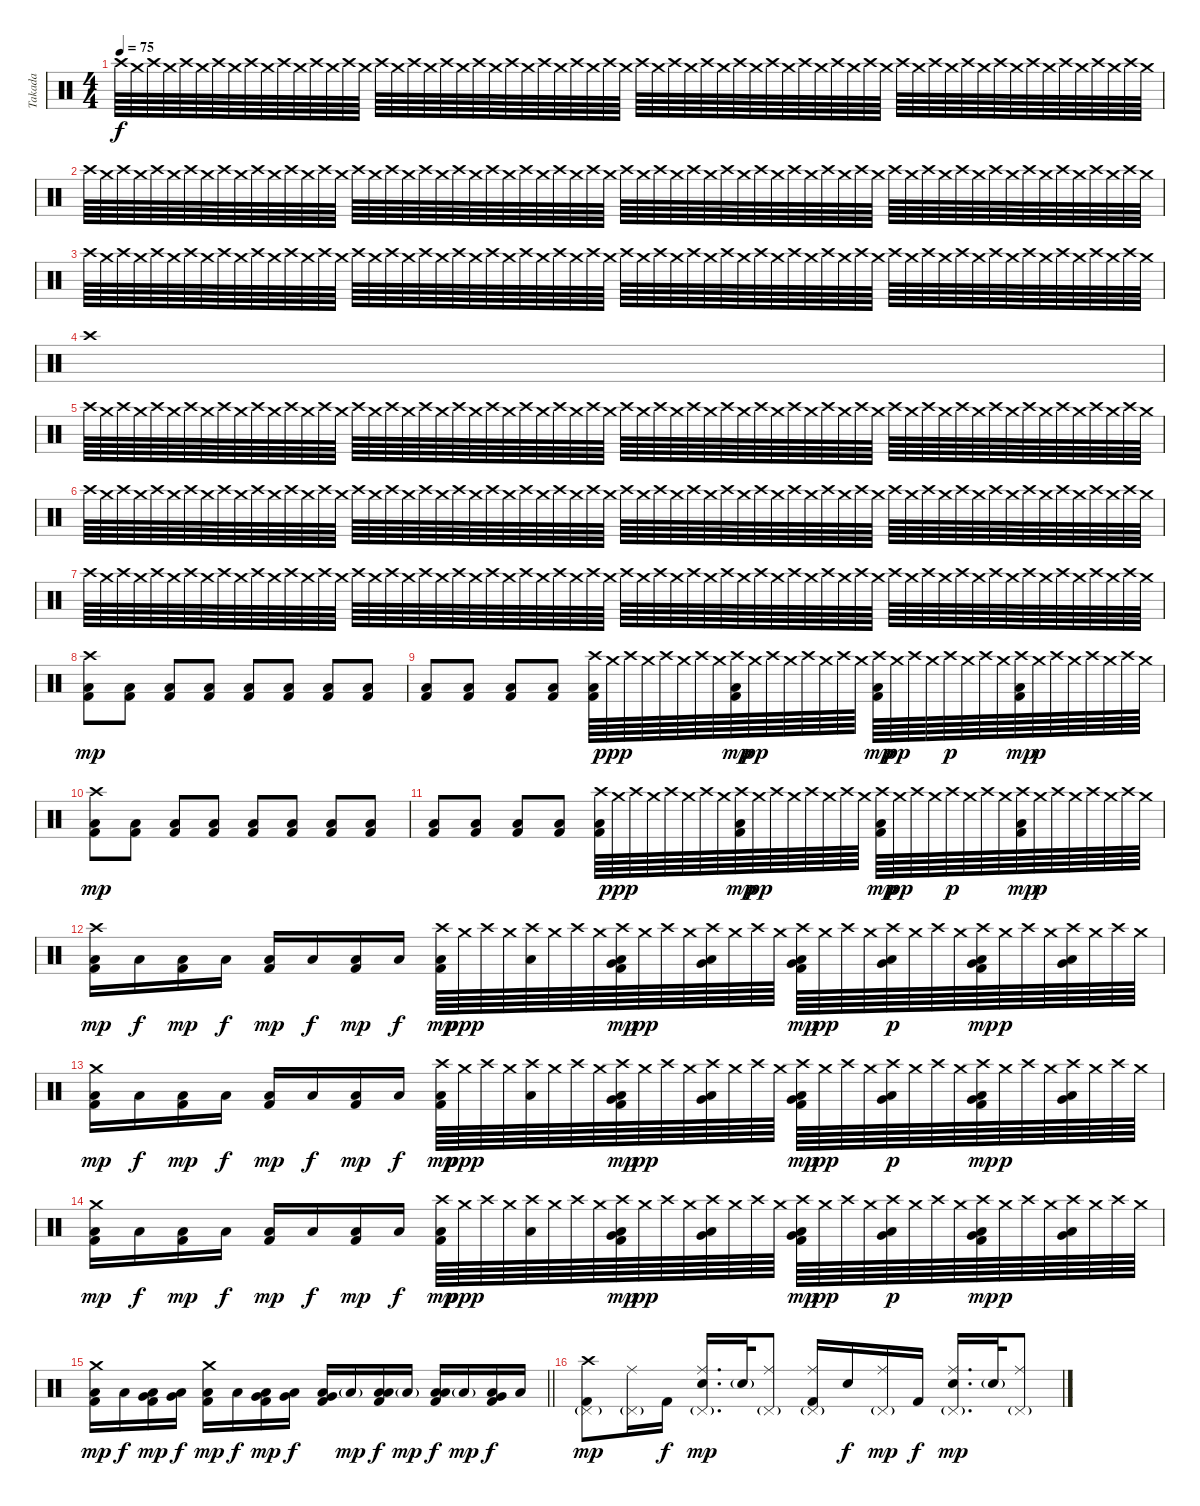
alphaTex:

\track ("Takada" "Takada") {instrument percussion}
\staff {score}
\articulation defaults
\ts (4 4)
\tempo 75
\clef neutral
\ks c "Crash high (hit)".64{dy f volume 0} "Crash medium (hit)".64{volume 4} "Crash high (hit)".64 "Crash medium (hit)".64 "Crash high (hit)".64 "Crash medium (hit)".64 "Crash high (hit)".64 "Crash medium (hit)".64 "Crash high (hit)".64 "Crash medium (hit)".64 "Crash high (hit)".64 "Crash medium (hit)".64 "Crash high (hit)".64 "Crash medium (hit)".64 "Crash high (hit)".64 "Crash medium (hit)".64 "Crash high (hit)".64 "Crash medium (hit)".64 "Crash high (hit)".64 "Crash medium (hit)".64 "Crash high (hit)".64 "Crash medium (hit)".64 "Crash high (hit)".64 "Crash medium (hit)".64 "Crash high (hit)".64 "Crash medium (hit)".64 "Crash high (hit)".64 "Crash medium (hit)".64 "Crash high (hit)".64 "Crash medium (hit)".64 "Crash high (hit)".64 "Crash medium (hit)".64 "Crash high (hit)".64 "Crash medium (hit)".64 "Crash high (hit)".64 "Crash medium (hit)".64 "Crash high (hit)".64 "Crash medium (hit)".64 "Crash high (hit)".64 "Crash medium (hit)".64 "Crash high (hit)".64 "Crash medium (hit)".64 "Crash high (hit)".64 "Crash medium (hit)".64 "Crash high (hit)".64 "Crash medium (hit)".64 "Crash high (hit)".64 "Crash medium (hit)".64 "Crash high (hit)".64 "Crash medium (hit)".64 "Crash high (hit)".64 "Crash medium (hit)".64 "Crash high (hit)".64 "Crash medium (hit)".64 "Crash high (hit)".64 "Crash medium (hit)".64 "Crash high (hit)".64 "Crash medium (hit)".64 "Crash high (hit)".64 "Crash medium (hit)".64 "Crash high (hit)".64 "Crash medium (hit)".64 "Crash high (hit)".64 "Crash medium (hit)".64
|
"Crash high (hit)".64 "Crash medium (hit)".64 "Crash high (hit)".64 "Crash medium (hit)".64 "Crash high (hit)".64 "Crash medium (hit)".64 "Crash high (hit)".64 "Crash medium (hit)".64 "Crash high (hit)".64 "Crash medium (hit)".64 "Crash high (hit)".64 "Crash medium (hit)".64 "Crash high (hit)".64 "Crash medium (hit)".64 "Crash high (hit)".64 "Crash medium (hit)".64 "Crash high (hit)".64 "Crash medium (hit)".64 "Crash high (hit)".64 "Crash medium (hit)".64 "Crash high (hit)".64 "Crash medium (hit)".64 "Crash high (hit)".64 "Crash medium (hit)".64 "Crash high (hit)".64 "Crash medium (hit)".64 "Crash high (hit)".64 "Crash medium (hit)".64 "Crash high (hit)".64 "Crash medium (hit)".64 "Crash high (hit)".64 "Crash medium (hit)".64 "Crash high (hit)".64 "Crash medium (hit)".64 "Crash high (hit)".64 "Crash medium (hit)".64 "Crash high (hit)".64 "Crash medium (hit)".64 "Crash high (hit)".64 "Crash medium (hit)".64 "Crash high (hit)".64 "Crash medium (hit)".64 "Crash high (hit)".64 "Crash medium (hit)".64 "Crash high (hit)".64 "Crash medium (hit)".64 "Crash high (hit)".64 "Crash medium (hit)".64 "Crash high (hit)".64 "Crash medium (hit)".64 "Crash high (hit)".64 "Crash medium (hit)".64 "Crash high (hit)".64 "Crash medium (hit)".64 "Crash high (hit)".64 "Crash medium (hit)".64 "Crash high (hit)".64 "Crash medium (hit)".64 "Crash high (hit)".64 "Crash medium (hit)".64 "Crash high (hit)".64 "Crash medium (hit)".64 "Crash high (hit)".64 "Crash medium (hit)".64 |
"Crash high (hit)".64 "Crash medium (hit)".64 "Crash high (hit)".64 "Crash medium (hit)".64 "Crash high (hit)".64 "Crash medium (hit)".64 "Crash high (hit)".64 "Crash medium (hit)".64 "Crash high (hit)".64{volume 5} "Crash medium (hit)".64 "Crash high (hit)".64 "Crash medium (hit)".64 "Crash high (hit)".64 "Crash medium (hit)".64 "Crash high (hit)".64 "Crash medium (hit)".64 "Crash high (hit)".64 "Crash medium (hit)".64 "Crash high (hit)".64 "Crash medium (hit)".64 "Crash high (hit)".64 "Crash medium (hit)".64 "Crash high (hit)".64 "Crash medium (hit)".64 "Crash high (hit)".64 "Crash medium (hit)".64 "Crash high (hit)".64 "Crash medium (hit)".64 "Crash high (hit)".64 "Crash medium (hit)".64 "Crash high (hit)".64 "Crash medium (hit)".64 "Crash high (hit)".64 "Crash medium (hit)".64 "Crash high (hit)".64 "Crash medium (hit)".64 "Crash high (hit)".64 "Crash medium (hit)".64 "Crash high (hit)".64 "Crash medium (hit)".64 "Crash high (hit)".64 "Crash medium (hit)".64 "Crash high (hit)".64 "Crash medium (hit)".64 "Crash high (hit)".64 "Crash medium (hit)".64 "Crash high (hit)".64 "Crash medium (hit)".64 "Crash high (hit)".64 "Crash medium (hit)".64 "Crash high (hit)".64 "Crash medium (hit)".64 "Crash high (hit)".64 "Crash medium (hit)".64 "Crash high (hit)".64 "Crash medium (hit)".64 "Crash high (hit)".64 "Crash medium (hit)".64 "Crash high (hit)".64 "Crash medium (hit)".64 "Crash high (hit)".64 "Crash medium (hit)".64 "Crash high (hit)".64 "Crash medium (hit)".64 |
"Crash high (hit)".1{volume 10} |
"Crash high (hit)".64{volume 0} "Crash medium (hit)".64{volume 4} "Crash high (hit)".64 "Crash medium (hit)".64 "Crash high (hit)".64 "Crash medium (hit)".64 "Crash high (hit)".64 "Crash medium (hit)".64 "Crash high (hit)".64 "Crash medium (hit)".64 "Crash high (hit)".64 "Crash medium (hit)".64 "Crash high (hit)".64 "Crash medium (hit)".64 "Crash high (hit)".64 "Crash medium (hit)".64 "Crash high (hit)".64 "Crash medium (hit)".64 "Crash high (hit)".64 "Crash medium (hit)".64 "Crash high (hit)".64 "Crash medium (hit)".64 "Crash high (hit)".64 "Crash medium (hit)".64 "Crash high (hit)".64 "Crash medium (hit)".64 "Crash high (hit)".64 "Crash medium (hit)".64 "Crash high (hit)".64 "Crash medium (hit)".64 "Crash high (hit)".64 "Crash medium (hit)".64 "Crash high (hit)".64 "Crash medium (hit)".64 "Crash high (hit)".64 "Crash medium (hit)".64 "Crash high (hit)".64 "Crash medium (hit)".64 "Crash high (hit)".64 "Crash medium (hit)".64 "Crash high (hit)".64 "Crash medium (hit)".64 "Crash high (hit)".64 "Crash medium (hit)".64 "Crash high (hit)".64 "Crash medium (hit)".64 "Crash high (hit)".64 "Crash medium (hit)".64 "Crash high (hit)".64 "Crash medium (hit)".64 "Crash high (hit)".64 "Crash medium (hit)".64 "Crash high (hit)".64 "Crash medium (hit)".64 "Crash high (hit)".64 "Crash medium (hit)".64 "Crash high (hit)".64 "Crash medium (hit)".64 "Crash high (hit)".64 "Crash medium (hit)".64 "Crash high (hit)".64 "Crash medium (hit)".64 "Crash high (hit)".64 "Crash medium (hit)".64 |
"Crash high (hit)".64 "Crash medium (hit)".64 "Crash high (hit)".64 "Crash medium (hit)".64 "Crash high (hit)".64 "Crash medium (hit)".64 "Crash high (hit)".64 "Crash medium (hit)".64 "Crash high (hit)".64 "Crash medium (hit)".64 "Crash high (hit)".64 "Crash medium (hit)".64 "Crash high (hit)".64 "Crash medium (hit)".64 "Crash high (hit)".64 "Crash medium (hit)".64 "Crash high (hit)".64 "Crash medium (hit)".64 "Crash high (hit)".64 "Crash medium (hit)".64 "Crash high (hit)".64 "Crash medium (hit)".64 "Crash high (hit)".64 "Crash medium (hit)".64 "Crash high (hit)".64 "Crash medium (hit)".64 "Crash high (hit)".64 "Crash medium (hit)".64 "Crash high (hit)".64 "Crash medium (hit)".64 "Crash high (hit)".64 "Crash medium (hit)".64 "Crash high (hit)".64 "Crash medium (hit)".64 "Crash high (hit)".64 "Crash medium (hit)".64 "Crash high (hit)".64 "Crash medium (hit)".64 "Crash high (hit)".64 "Crash medium (hit)".64 "Crash high (hit)".64 "Crash medium (hit)".64 "Crash high (hit)".64 "Crash medium (hit)".64 "Crash high (hit)".64 "Crash medium (hit)".64 "Crash high (hit)".64 "Crash medium (hit)".64 "Crash high (hit)".64 "Crash medium (hit)".64 "Crash high (hit)".64 "Crash medium (hit)".64 "Crash high (hit)".64 "Crash medium (hit)".64 "Crash high (hit)".64 "Crash medium (hit)".64 "Crash high (hit)".64 "Crash medium (hit)".64 "Crash high (hit)".64 "Crash medium (hit)".64 "Crash high (hit)".64 "Crash medium (hit)".64 "Crash high (hit)".64 "Crash medium (hit)".64 |
"Crash high (hit)".64 "Crash medium (hit)".64 "Crash high (hit)".64 "Crash medium (hit)".64 "Crash high (hit)".64 "Crash medium (hit)".64 "Crash high (hit)".64 "Crash medium (hit)".64 "Crash high (hit)".64{volume 5} "Crash medium (hit)".64 "Crash high (hit)".64 "Crash medium (hit)".64 "Crash high (hit)".64 "Crash medium (hit)".64 "Crash high (hit)".64 "Crash medium (hit)".64 "Crash high (hit)".64 "Crash medium (hit)".64 "Crash high (hit)".64 "Crash medium (hit)".64 "Crash high (hit)".64 "Crash medium (hit)".64 "Crash high (hit)".64 "Crash medium (hit)".64 "Crash high (hit)".64 "Crash medium (hit)".64 "Crash high (hit)".64 "Crash medium (hit)".64 "Crash high (hit)".64 "Crash medium (hit)".64 "Crash high (hit)".64 "Crash medium (hit)".64 "Crash high (hit)".64 "Crash medium (hit)".64 "Crash high (hit)".64 "Crash medium (hit)".64 "Crash high (hit)".64 "Crash medium (hit)".64 "Crash high (hit)".64 "Crash medium (hit)".64 "Crash high (hit)".64 "Crash medium (hit)".64 "Crash high (hit)".64 "Crash medium (hit)".64 "Crash high (hit)".64 "Crash medium (hit)".64 "Crash high (hit)".64 "Crash medium (hit)".64 "Crash high (hit)".64 "Crash medium (hit)".64 "Crash high (hit)".64 "Crash medium (hit)".64 "Crash high (hit)".64 "Crash medium (hit)".64 "Crash high (hit)".64 "Crash medium (hit)".64 "Crash high (hit)".64 "Crash medium (hit)".64 "Crash high (hit)".64 "Crash medium (hit)".64 "Crash high (hit)".64 "Crash medium (hit)".64 "Crash high (hit)".64 "Crash medium (hit)".64 |
("Crash high (hit)" "Low Floor Tom (hit)" "Kick (hit) 2").8{dy mp volume 14} ("Low Floor Tom (hit)" "Kick (hit) 2").8 ("Low Floor Tom (hit)" "Kick (hit) 2").8 ("Low Floor Tom (hit)" "Kick (hit) 2").8 ("Low Floor Tom (hit)" "Kick (hit) 2").8 ("Low Floor Tom (hit)" "Kick (hit) 2").8 ("Low Floor Tom (hit)" "Kick (hit) 2").8 ("Low Floor Tom (hit)" "Kick (hit) 2").8 |
("Low Floor Tom (hit)" "Kick (hit) 2").8 ("Low Floor Tom (hit)" "Kick (hit) 2").8 ("Low Floor Tom (hit)" "Kick (hit) 2").8 ("Low Floor Tom (hit)" "Kick (hit) 2").8 ("Crash high (hit)" "Low Floor Tom (hit)" "Kick (hit) 2").64 "Crash medium (hit)".64{dy ppp} "Crash high (hit)".64 "Crash medium (hit)".64 "Crash high (hit)".64 "Crash medium (hit)".64 "Crash high (hit)".64 "Crash medium (hit)".64 ("Crash high (hit)" "Low Floor Tom (hit)" "Kick (hit) 2").64{dy mp} "Crash medium (hit)".64{dy pp} "Crash high (hit)".64 "Crash medium (hit)".64 "Crash high (hit)".64 "Crash medium (hit)".64 "Crash high (hit)".64 "Crash medium (hit)".64 ("Crash high (hit)" "Low Floor Tom (hit)" "Kick (hit) 2").64{dy mp} "Crash medium (hit)".64{dy pp} "Crash high (hit)".64 "Crash medium (hit)".64 "Crash high (hit)".64{dy p} "Crash medium (hit)".64 "Crash high (hit)".64 "Crash medium (hit)".64 ("Crash high (hit)" "Low Floor Tom (hit)" "Kick (hit) 2").64{dy mp} "Crash medium (hit)".64{dy p} "Crash high (hit)".64 "Crash medium (hit)".64 "Crash high (hit)".64 "Crash medium (hit)".64 "Crash high (hit)".64 "Crash medium (hit)".64 |
("Crash high (hit)" "Low Floor Tom (hit)" "Kick (hit) 2").8{dy mp} ("Low Floor Tom (hit)" "Kick (hit) 2").8 ("Low Floor Tom (hit)" "Kick (hit) 2").8 ("Low Floor Tom (hit)" "Kick (hit) 2").8 ("Low Floor Tom (hit)" "Kick (hit) 2").8 ("Low Floor Tom (hit)" "Kick (hit) 2").8 ("Low Floor Tom (hit)" "Kick (hit) 2").8 ("Low Floor Tom (hit)" "Kick (hit) 2").8 |
("Low Floor Tom (hit)" "Kick (hit) 2").8 ("Low Floor Tom (hit)" "Kick (hit) 2").8 ("Low Floor Tom (hit)" "Kick (hit) 2").8 ("Low Floor Tom (hit)" "Kick (hit) 2").8 ("Crash high (hit)" "Low Floor Tom (hit)" "Kick (hit) 2").64 "Crash medium (hit)".64{dy ppp} "Crash high (hit)".64 "Crash medium (hit)".64 "Crash high (hit)".64 "Crash medium (hit)".64 "Crash high (hit)".64 "Crash medium (hit)".64 ("Crash high (hit)" "Low Floor Tom (hit)" "Kick (hit) 2").64{dy mp} "Crash medium (hit)".64{dy pp} "Crash high (hit)".64 "Crash medium (hit)".64 "Crash high (hit)".64 "Crash medium (hit)".64 "Crash high (hit)".64 "Crash medium (hit)".64 ("Crash high (hit)" "Low Floor Tom (hit)" "Kick (hit) 2").64{dy mp} "Crash medium (hit)".64{dy pp} "Crash high (hit)".64 "Crash medium (hit)".64 "Crash high (hit)".64{dy p} "Crash medium (hit)".64 "Crash high (hit)".64 "Crash medium (hit)".64 ("Crash high (hit)" "Low Floor Tom (hit)" "Kick (hit) 2").64{dy mp} "Crash medium (hit)".64{dy p} "Crash high (hit)".64 "Crash medium (hit)".64 "Crash high (hit)".64 "Crash medium (hit)".64 "Crash high (hit)".64 "Crash medium (hit)".64 |
("Crash high (hit)" "Low Floor Tom (hit)" "Kick (hit) 2").16{dy mp} "Low Floor Tom (hit)".16{dy f} ("Low Floor Tom (hit)" "Kick (hit) 2").16{dy mp} "Low Floor Tom (hit)".16{dy f} ("Low Floor Tom (hit)" "Kick (hit) 2").16{dy mp} "Low Floor Tom (hit)".16{dy f} ("Low Floor Tom (hit)" "Kick (hit) 2").16{dy mp} "Low Floor Tom (hit)".16{dy f} ("Crash high (hit)" "Low Floor Tom (hit)" "Kick (hit) 2").64{dy mp} "Crash medium (hit)".64{dy ppp} "Crash high (hit)".64 "Crash medium (hit)".64 ("Crash high (hit)" "Low Floor Tom (hit)").64 "Crash medium (hit)".64 "Crash high (hit)".64 "Crash medium (hit)".64 ("Crash high (hit)" "Very Low Tom (hit)" "Low Floor Tom (hit)" "Kick (hit) 2").64{dy mp} "Crash medium (hit)".64{dy pp} "Crash high (hit)".64 "Crash medium (hit)".64 ("Crash high (hit)" "Very Low Tom (hit)" "Low Floor Tom (hit)").64 "Crash medium (hit)".64 "Crash high (hit)".64 "Crash medium (hit)".64 ("Crash high (hit)" "Very Low Tom (hit)" "Low Floor Tom (hit)" "Kick (hit) 2").64{dy mp} "Crash medium (hit)".64{dy pp} "Crash high (hit)".64 "Crash medium (hit)".64 ("Crash high (hit)" "Very Low Tom (hit)" "Low Floor Tom (hit)").64{dy p} "Crash medium (hit)".64 "Crash high (hit)".64 "Crash medium (hit)".64 ("Crash high (hit)" "Very Low Tom (hit)" "Low Floor Tom (hit)" "Kick (hit) 2").64{dy mp} "Crash medium (hit)".64{dy p} "Crash high (hit)".64 "Crash medium (hit)".64 ("Crash high (hit)" "Very Low Tom (hit)" "Low Floor Tom (hit)").64 "Crash medium (hit)".64 "Crash high (hit)".64 "Crash medium (hit)".64 |
("Crash medium (hit)" "Low Floor Tom (hit)" "Kick (hit) 2").16{dy mp} "Low Floor Tom (hit)".16{dy f} ("Low Floor Tom (hit)" "Kick (hit) 2").16{dy mp} "Low Floor Tom (hit)".16{dy f} ("Low Floor Tom (hit)" "Kick (hit) 2").16{dy mp} "Low Floor Tom (hit)".16{dy f} ("Low Floor Tom (hit)" "Kick (hit) 2").16{dy mp} "Low Floor Tom (hit)".16{dy f} ("Crash high (hit)" "Low Floor Tom (hit)" "Kick (hit) 2").64{dy mp} "Crash medium (hit)".64{dy ppp} "Crash high (hit)".64 "Crash medium (hit)".64 ("Crash high (hit)" "Low Floor Tom (hit)").64 "Crash medium (hit)".64 "Crash high (hit)".64 "Crash medium (hit)".64 ("Crash high (hit)" "Very Low Tom (hit)" "Low Floor Tom (hit)" "Kick (hit) 2").64{dy mp} "Crash medium (hit)".64{dy pp} "Crash high (hit)".64 "Crash medium (hit)".64 ("Crash high (hit)" "Very Low Tom (hit)" "Low Floor Tom (hit)").64 "Crash medium (hit)".64 "Crash high (hit)".64 "Crash medium (hit)".64 ("Crash high (hit)" "Very Low Tom (hit)" "Low Floor Tom (hit)" "Kick (hit) 2").64{dy mp} "Crash medium (hit)".64{dy pp} "Crash high (hit)".64 "Crash medium (hit)".64 ("Crash high (hit)" "Very Low Tom (hit)" "Low Floor Tom (hit)").64{dy p} "Crash medium (hit)".64 "Crash high (hit)".64 "Crash medium (hit)".64 ("Crash high (hit)" "Very Low Tom (hit)" "Low Floor Tom (hit)" "Kick (hit) 2").64{dy mp} "Crash medium (hit)".64{dy p} "Crash high (hit)".64 "Crash medium (hit)".64 ("Crash high (hit)" "Very Low Tom (hit)" "Low Floor Tom (hit)").64 "Crash medium (hit)".64 "Crash high (hit)".64 "Crash medium (hit)".64 |
("Crash medium (hit)" "Low Floor Tom (hit)" "Kick (hit) 2").16{dy mp} "Low Floor Tom (hit)".16{dy f} ("Low Floor Tom (hit)" "Kick (hit) 2").16{dy mp} "Low Floor Tom (hit)".16{dy f} ("Low Floor Tom (hit)" "Kick (hit) 2").16{dy mp} "Low Floor Tom (hit)".16{dy f} ("Low Floor Tom (hit)" "Kick (hit) 2").16{dy mp} "Low Floor Tom (hit)".16{dy f} ("Crash high (hit)" "Low Floor Tom (hit)" "Kick (hit) 2").64{dy mp} "Crash medium (hit)".64{dy ppp} "Crash high (hit)".64 "Crash medium (hit)".64 ("Crash high (hit)" "Low Floor Tom (hit)").64 "Crash medium (hit)".64 "Crash high (hit)".64 "Crash medium (hit)".64 ("Crash high (hit)" "Very Low Tom (hit)" "Low Floor Tom (hit)" "Kick (hit) 2").64{dy mp} "Crash medium (hit)".64{dy pp} "Crash high (hit)".64 "Crash medium (hit)".64 ("Crash high (hit)" "Very Low Tom (hit)" "Low Floor Tom (hit)").64 "Crash medium (hit)".64 "Crash high (hit)".64 "Crash medium (hit)".64 ("Crash high (hit)" "Very Low Tom (hit)" "Low Floor Tom (hit)" "Kick (hit) 2").64{dy mp} "Crash medium (hit)".64{dy pp} "Crash high (hit)".64 "Crash medium (hit)".64 ("Crash high (hit)" "Very Low Tom (hit)" "Low Floor Tom (hit)").64{dy p} "Crash medium (hit)".64 "Crash high (hit)".64 "Crash medium (hit)".64 ("Crash high (hit)" "Very Low Tom (hit)" "Low Floor Tom (hit)" "Kick (hit) 2").64{dy mp} "Crash medium (hit)".64{dy p} "Crash high (hit)".64 "Crash medium (hit)".64 ("Crash high (hit)" "Very Low Tom (hit)" "Low Floor Tom (hit)").64 "Crash medium (hit)".64 "Crash high (hit)".64 "Crash medium (hit)".64 |
\barLineRight lightlight
("Crash medium (hit)" "Low Tom (hit)" "Kick (hit) 2").16{dy mp} "Low Floor Tom (hit)".16{dy f} ("Very Low Tom (hit)" "Low Floor Tom (hit)" "Kick (hit) 2").16{dy mp} ("Very Low Tom (hit)" "Low Floor Tom (hit)").16{dy f} ("Crash medium (hit)" "Low Tom (hit)" "Kick (hit) 2").16{dy mp} "Low Floor Tom (hit)".16{dy f} ("Very Low Tom (hit)" "Low Floor Tom (hit)" "Kick (hit) 2").16{dy mp} ("Very Low Tom (hit)" "Low Floor Tom (hit)").16{dy f} ("Low Tom (hit)" "Very Low Tom (hit)" "Kick (hit) 2").16 "Low Floor Tom (hit)"{g}.16{dy mp} ("Low Tom (hit)" "Low Floor Tom (hit)" "Kick (hit) 2").16{dy f} "Low Floor Tom (hit)"{g}.16{dy mp} ("Low Tom (hit)" "Low Floor Tom (hit)" "Kick (hit) 2").16{dy f} "Low Floor Tom (hit)"{g}.16{dy mp} ("Very Low Tom (hit)" "Low Floor Tom (hit)" "Kick (hit) 2").16{dy f} "Low Floor Tom (hit)".16 |
\section ("" "")
("Crash high (hit)" "Pedal Hi-Hat (hit)"{g} "Kick (hit) 2").8{dy mp} ("Ride (middle)" "Pedal Hi-Hat (hit)"{g}).16 "Kick (hit) 2".16{dy f} ("Ride (middle)" "Pedal Hi-Hat (hit)"{g} "Electric Snare (hit)").16{d dy mp} "Electric Snare (hit)"{g}.32 ("Ride (middle)" "Pedal Hi-Hat (hit)"{g}).8 ("Ride (middle)" "Pedal Hi-Hat (hit)"{g} "Kick (hit) 2").16 "Electric Snare (hit)".16{dy f} ("Ride (middle)" "Pedal Hi-Hat (hit)"{g}).16{dy mp} "Kick (hit) 2".16{dy f} ("Ride (middle)" "Pedal Hi-Hat (hit)"{g} "Electric Snare (hit)").16{d dy mp} "Electric Snare (hit)"{g}.32 ("Ride (middle)" "Pedal Hi-Hat (hit)"{g}).8
